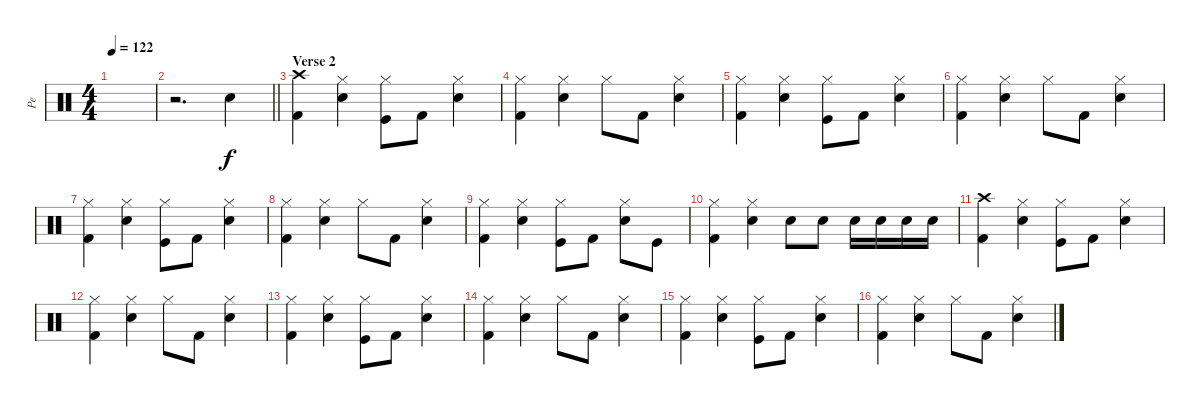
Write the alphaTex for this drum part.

\track ("Pe" "Pe") {instrument percussion}
\staff {score}
\articulation defaults
\ts (4 4)
\tempo 122
\clef neutral
\ks c
|
\barLineRight lightlight
r.2{d} "Electric Snare (hit)".4 |
\section ("" "Verse 2")
("Kick (hit) 2" "Crash high (hit)").4 ("Electric Snare (hit)" "Hi-Hat (closed)").4 ("Kick (hit)" "Hi-Hat (closed)").8 "Kick (hit) 2".8 ("Electric Snare (hit)" "Hi-Hat (closed)").4 |
("Kick (hit) 2" "Hi-Hat (closed)").4 ("Electric Snare (hit)" "Hi-Hat (closed)").4 "Hi-Hat (closed)".8 "Kick (hit) 2".8 ("Electric Snare (hit)" "Hi-Hat (closed)").4 |
("Kick (hit) 2" "Hi-Hat (closed)").4 ("Electric Snare (hit)" "Hi-Hat (closed)").4 ("Kick (hit)" "Hi-Hat (closed)").8 "Kick (hit) 2".8 ("Electric Snare (hit)" "Hi-Hat (closed)").4 |
("Kick (hit) 2" "Hi-Hat (closed)").4 ("Electric Snare (hit)" "Hi-Hat (closed)").4 "Hi-Hat (closed)".8 "Kick (hit) 2".8 ("Electric Snare (hit)" "Hi-Hat (closed)").4 |
("Kick (hit) 2" "Hi-Hat (closed)").4 ("Electric Snare (hit)" "Hi-Hat (closed)").4 ("Kick (hit)" "Hi-Hat (closed)").8 "Kick (hit) 2".8 ("Electric Snare (hit)" "Hi-Hat (closed)").4 |
("Kick (hit) 2" "Hi-Hat (closed)").4 ("Electric Snare (hit)" "Hi-Hat (closed)").4 "Hi-Hat (closed)".8 "Kick (hit) 2".8 ("Electric Snare (hit)" "Hi-Hat (closed)").4 |
("Kick (hit) 2" "Hi-Hat (closed)").4 ("Electric Snare (hit)" "Hi-Hat (closed)").4 ("Kick (hit)" "Hi-Hat (closed)").8 "Kick (hit) 2".8 ("Electric Snare (hit)" "Hi-Hat (closed)").8 "Kick (hit)".8 |
("Kick (hit) 2" "Hi-Hat (closed)").4 ("Electric Snare (hit)" "Hi-Hat (closed)").4 "Electric Snare (hit)".8 "Electric Snare (hit)".8 "Electric Snare (hit)".16 "Electric Snare (hit)".16 "Electric Snare (hit)".16 "Electric Snare (hit)".16 |
("Kick (hit) 2" "Crash high (hit)").4 ("Electric Snare (hit)" "Hi-Hat (closed)").4 ("Kick (hit)" "Hi-Hat (closed)").8 "Kick (hit) 2".8 ("Electric Snare (hit)" "Hi-Hat (closed)").4 |
("Kick (hit) 2" "Hi-Hat (closed)").4 ("Electric Snare (hit)" "Hi-Hat (closed)").4 "Hi-Hat (closed)".8 "Kick (hit) 2".8 ("Electric Snare (hit)" "Hi-Hat (closed)").4 |
("Kick (hit) 2" "Hi-Hat (closed)").4 ("Electric Snare (hit)" "Hi-Hat (closed)").4 ("Kick (hit)" "Hi-Hat (closed)").8 "Kick (hit) 2".8 ("Electric Snare (hit)" "Hi-Hat (closed)").4 |
("Kick (hit) 2" "Hi-Hat (closed)").4 ("Electric Snare (hit)" "Hi-Hat (closed)").4 "Hi-Hat (closed)".8 "Kick (hit) 2".8 ("Electric Snare (hit)" "Hi-Hat (closed)").4 |
("Kick (hit) 2" "Hi-Hat (closed)").4 ("Electric Snare (hit)" "Hi-Hat (closed)").4 ("Kick (hit)" "Hi-Hat (closed)").8 "Kick (hit) 2".8 ("Electric Snare (hit)" "Hi-Hat (closed)").4 |
("Kick (hit) 2" "Hi-Hat (closed)").4 ("Electric Snare (hit)" "Hi-Hat (closed)").4 "Hi-Hat (closed)".8 "Kick (hit) 2".8 ("Electric Snare (hit)" "Hi-Hat (closed)").4
